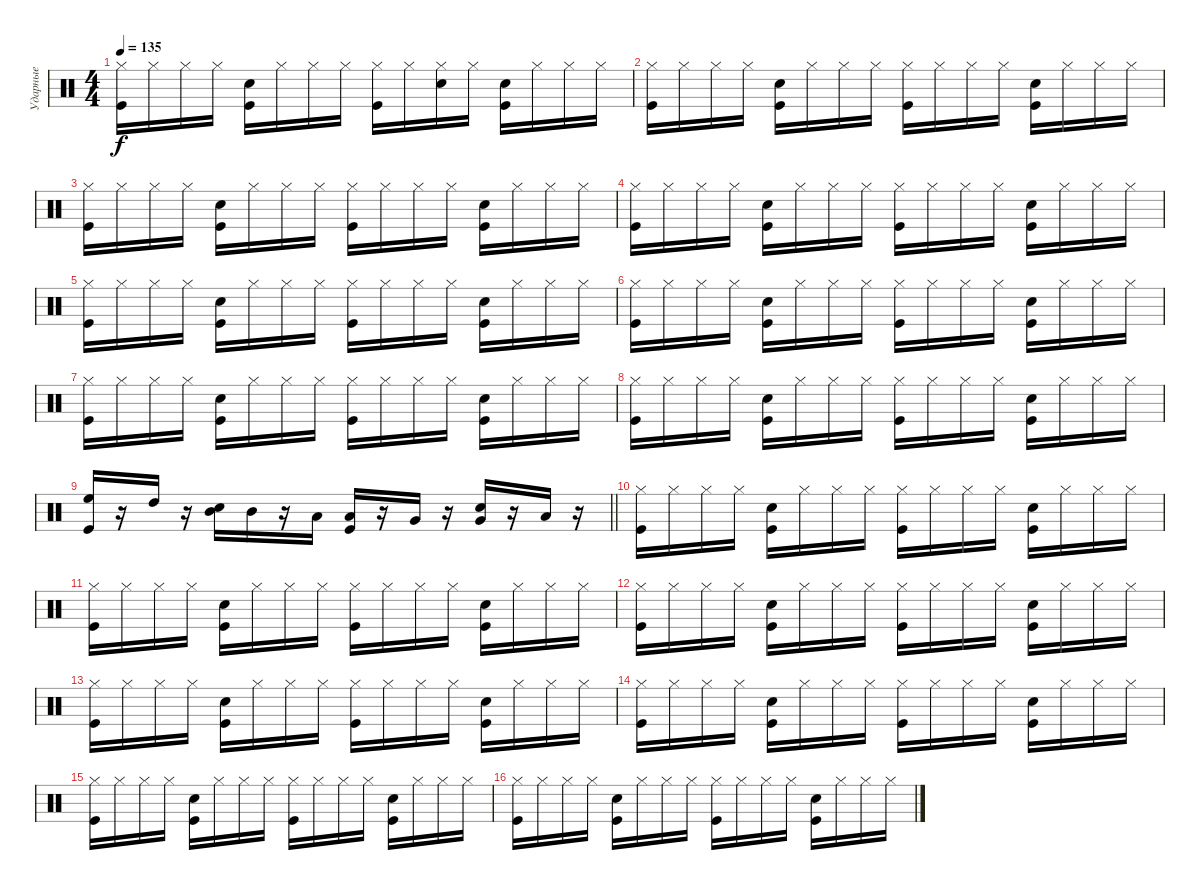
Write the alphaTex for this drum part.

\track ("Ударные" "Ударные") {instrument percussion}
\staff {score}
\articulation defaults
\ts (4 4)
\tempo 135
\clef neutral
\ks c
("Hi-Hat (closed)" "Kick (hit)").16{dy f} "Hi-Hat (closed)".16 "Hi-Hat (closed)".16 "Hi-Hat (closed)".16 ("Kick (hit)" "Snare (hit) 2").16 "Hi-Hat (closed)".16 "Hi-Hat (closed)".16 "Hi-Hat (closed)".16 ("Hi-Hat (closed)" "Kick (hit)").16 "Hi-Hat (closed)".16 ("Hi-Hat (closed)" "Snare (hit) 2").16 "Hi-Hat (closed)".16 ("Kick (hit)" "Snare (hit) 2").16 "Hi-Hat (closed)".16 "Hi-Hat (closed)".16 "Hi-Hat (closed)".16 |
("Hi-Hat (closed)" "Kick (hit)").16 "Hi-Hat (closed)".16 "Hi-Hat (closed)".16 "Hi-Hat (closed)".16 ("Kick (hit)" "Snare (hit) 2").16 "Hi-Hat (closed)".16 "Hi-Hat (closed)".16 "Hi-Hat (closed)".16 ("Hi-Hat (closed)" "Kick (hit)").16 "Hi-Hat (closed)".16 "Hi-Hat (closed)".16 "Hi-Hat (closed)".16 ("Kick (hit)" "Snare (hit) 2").16 "Hi-Hat (closed)".16 "Hi-Hat (closed)".16 "Hi-Hat (closed)".16 |
("Hi-Hat (closed)" "Kick (hit)").16 "Hi-Hat (closed)".16 "Hi-Hat (closed)".16 "Hi-Hat (closed)".16 ("Kick (hit)" "Snare (hit) 2").16 "Hi-Hat (closed)".16 "Hi-Hat (closed)".16 "Hi-Hat (closed)".16 ("Hi-Hat (closed)" "Kick (hit)").16 "Hi-Hat (closed)".16 "Hi-Hat (closed)".16 "Hi-Hat (closed)".16 ("Kick (hit)" "Snare (hit) 2").16 "Hi-Hat (closed)".16 "Hi-Hat (closed)".16 "Hi-Hat (closed)".16 |
("Hi-Hat (closed)" "Kick (hit)").16 "Hi-Hat (closed)".16 "Hi-Hat (closed)".16 "Hi-Hat (closed)".16 ("Kick (hit)" "Snare (hit) 2").16 "Hi-Hat (closed)".16 "Hi-Hat (closed)".16 "Hi-Hat (closed)".16 ("Hi-Hat (closed)" "Kick (hit)").16 "Hi-Hat (closed)".16 "Hi-Hat (closed)".16 "Hi-Hat (closed)".16 ("Kick (hit)" "Snare (hit) 2").16 "Hi-Hat (closed)".16 "Hi-Hat (closed)".16 "Hi-Hat (closed)".16 |
("Hi-Hat (closed)" "Kick (hit)").16 "Hi-Hat (closed)".16 "Hi-Hat (closed)".16 "Hi-Hat (closed)".16 ("Kick (hit)" "Snare (hit) 2").16 "Hi-Hat (closed)".16 "Hi-Hat (closed)".16 "Hi-Hat (closed)".16 ("Hi-Hat (closed)" "Kick (hit)").16 "Hi-Hat (closed)".16 "Hi-Hat (closed)".16 "Hi-Hat (closed)".16 ("Kick (hit)" "Snare (hit) 2").16 "Hi-Hat (closed)".16 "Hi-Hat (closed)".16 "Hi-Hat (closed)".16 |
("Hi-Hat (closed)" "Kick (hit)").16 "Hi-Hat (closed)".16 "Hi-Hat (closed)".16 "Hi-Hat (closed)".16 ("Kick (hit)" "Snare (hit) 2").16 "Hi-Hat (closed)".16 "Hi-Hat (closed)".16 "Hi-Hat (closed)".16 ("Hi-Hat (closed)" "Kick (hit)").16 "Hi-Hat (closed)".16 "Hi-Hat (closed)".16 "Hi-Hat (closed)".16 ("Kick (hit)" "Snare (hit) 2").16 "Hi-Hat (closed)".16 "Hi-Hat (closed)".16 "Hi-Hat (closed)".16 |
("Hi-Hat (closed)" "Kick (hit)").16 "Hi-Hat (closed)".16 "Hi-Hat (closed)".16 "Hi-Hat (closed)".16 ("Kick (hit)" "Snare (hit) 2").16 "Hi-Hat (closed)".16 "Hi-Hat (closed)".16 "Hi-Hat (closed)".16 ("Hi-Hat (closed)" "Kick (hit)").16 "Hi-Hat (closed)".16 "Hi-Hat (closed)".16 "Hi-Hat (closed)".16 ("Kick (hit)" "Snare (hit) 2").16 "Hi-Hat (closed)".16 "Hi-Hat (closed)".16 "Hi-Hat (closed)".16 |
("Hi-Hat (closed)" "Kick (hit)").16 "Hi-Hat (closed)".16 "Hi-Hat (closed)".16 "Hi-Hat (closed)".16 ("Kick (hit)" "Snare (hit) 2").16 "Hi-Hat (closed)".16 "Hi-Hat (closed)".16 "Hi-Hat (closed)".16 ("Hi-Hat (closed)" "Kick (hit)").16 "Hi-Hat (closed)".16 "Hi-Hat (closed)".16 "Hi-Hat (closed)".16 ("Kick (hit)" "Snare (hit) 2").16 "Hi-Hat (closed)".16 "Hi-Hat (closed)".16 "Hi-Hat (closed)".16 |
\barLineRight lightlight
("Kick (hit)" "High Floor Tom (hit)").16 r.16 "High Tom (hit)".16 r.16 ("Snare (hit) 2" "Mid Tom (hit)").16 "Mid Tom (hit)".16 r.16 "Low Tom (hit)".16 ("Kick (hit)" "Low Tom (hit)").16 r.16 "Very Low Tom (hit)".16 r.16 ("Very Low Tom (hit)" "Snare (hit) 2").16 r.16 "Low Floor Tom (hit)".16 r.16 |
("Hi-Hat (closed)" "Kick (hit)").16 "Hi-Hat (closed)".16 "Hi-Hat (closed)".16 "Hi-Hat (closed)".16 ("Kick (hit)" "Snare (hit) 2").16 "Hi-Hat (closed)".16 "Hi-Hat (closed)".16 "Hi-Hat (closed)".16 ("Hi-Hat (closed)" "Kick (hit)").16 "Hi-Hat (closed)".16 "Hi-Hat (closed)".16 "Hi-Hat (closed)".16 ("Kick (hit)" "Snare (hit) 2").16 "Hi-Hat (closed)".16 "Hi-Hat (closed)".16 "Hi-Hat (closed)".16 |
("Hi-Hat (closed)" "Kick (hit)").16 "Hi-Hat (closed)".16 "Hi-Hat (closed)".16 "Hi-Hat (closed)".16 ("Kick (hit)" "Snare (hit) 2").16 "Hi-Hat (closed)".16 "Hi-Hat (closed)".16 "Hi-Hat (closed)".16 ("Hi-Hat (closed)" "Kick (hit)").16 "Hi-Hat (closed)".16 "Hi-Hat (closed)".16 "Hi-Hat (closed)".16 ("Kick (hit)" "Snare (hit) 2").16 "Hi-Hat (closed)".16 "Hi-Hat (closed)".16 "Hi-Hat (closed)".16 |
("Hi-Hat (closed)" "Kick (hit)").16 "Hi-Hat (closed)".16 "Hi-Hat (closed)".16 "Hi-Hat (closed)".16 ("Kick (hit)" "Snare (hit) 2").16 "Hi-Hat (closed)".16 "Hi-Hat (closed)".16 "Hi-Hat (closed)".16 ("Hi-Hat (closed)" "Kick (hit)").16 "Hi-Hat (closed)".16 "Hi-Hat (closed)".16 "Hi-Hat (closed)".16 ("Kick (hit)" "Snare (hit) 2").16 "Hi-Hat (closed)".16 "Hi-Hat (closed)".16 "Hi-Hat (closed)".16 |
("Hi-Hat (closed)" "Kick (hit)").16 "Hi-Hat (closed)".16 "Hi-Hat (closed)".16 "Hi-Hat (closed)".16 ("Kick (hit)" "Snare (hit) 2").16 "Hi-Hat (closed)".16 "Hi-Hat (closed)".16 "Hi-Hat (closed)".16 ("Hi-Hat (closed)" "Kick (hit)").16 "Hi-Hat (closed)".16 "Hi-Hat (closed)".16 "Hi-Hat (closed)".16 ("Kick (hit)" "Snare (hit) 2").16 "Hi-Hat (closed)".16 "Hi-Hat (closed)".16 "Hi-Hat (closed)".16 |
("Hi-Hat (closed)" "Kick (hit)").16 "Hi-Hat (closed)".16 "Hi-Hat (closed)".16 "Hi-Hat (closed)".16 ("Kick (hit)" "Snare (hit) 2").16 "Hi-Hat (closed)".16 "Hi-Hat (closed)".16 "Hi-Hat (closed)".16 ("Hi-Hat (closed)" "Kick (hit)").16 "Hi-Hat (closed)".16 "Hi-Hat (closed)".16 "Hi-Hat (closed)".16 ("Kick (hit)" "Snare (hit) 2").16 "Hi-Hat (closed)".16 "Hi-Hat (closed)".16 "Hi-Hat (closed)".16 |
("Hi-Hat (closed)" "Kick (hit)").16 "Hi-Hat (closed)".16 "Hi-Hat (closed)".16 "Hi-Hat (closed)".16 ("Kick (hit)" "Snare (hit) 2").16 "Hi-Hat (closed)".16 "Hi-Hat (closed)".16 "Hi-Hat (closed)".16 ("Hi-Hat (closed)" "Kick (hit)").16 "Hi-Hat (closed)".16 "Hi-Hat (closed)".16 "Hi-Hat (closed)".16 ("Kick (hit)" "Snare (hit) 2").16 "Hi-Hat (closed)".16 "Hi-Hat (closed)".16 "Hi-Hat (closed)".16 |
("Hi-Hat (closed)" "Kick (hit)").16 "Hi-Hat (closed)".16 "Hi-Hat (closed)".16 "Hi-Hat (closed)".16 ("Kick (hit)" "Snare (hit) 2").16 "Hi-Hat (closed)".16 "Hi-Hat (closed)".16 "Hi-Hat (closed)".16 ("Hi-Hat (closed)" "Kick (hit)").16 "Hi-Hat (closed)".16 "Hi-Hat (closed)".16 "Hi-Hat (closed)".16 ("Kick (hit)" "Snare (hit) 2").16 "Hi-Hat (closed)".16 "Hi-Hat (closed)".16 "Hi-Hat (closed)".16
